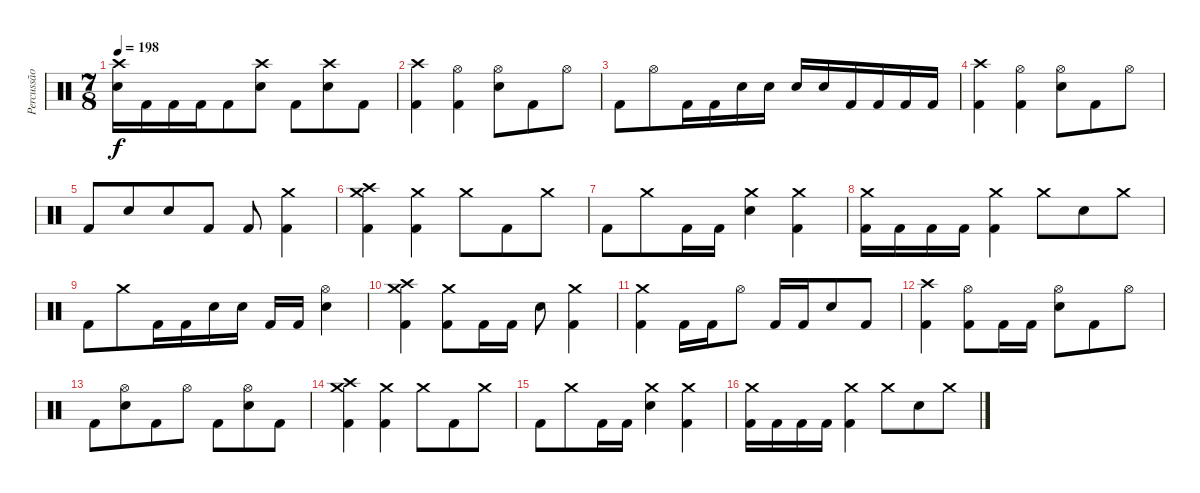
\track ("Percussão" "Percussão") {instrument percussion}
\staff {score}
\articulation defaults
\ts (7 8)
\tempo 198
\clef neutral
\ks c
("Crash high (hit)" "Snare (hit) 2").16{dy f} "Kick (hit) 2".16 "Kick (hit) 2".16 "Kick (hit) 2".16 "Kick (hit) 2".8 ("Crash high (hit)" "Snare (hit) 2").8 "Kick (hit) 2".8 ("Crash high (hit)" "Snare (hit) 2").8 "Kick (hit) 2".8 |
("Crash high (hit)" "Kick (hit) 2").4 ("Hi-Hat (open)" "Kick (hit) 2").4 ("Hi-Hat (open)" "Snare (hit) 2").8 "Kick (hit) 2".8 "Hi-Hat (open)".8 |
"Kick (hit) 2".8 "Hi-Hat (open)".8 "Kick (hit) 2".16 "Kick (hit) 2".16 "Snare (hit) 2".16 "Snare (hit) 2".16 "Snare (hit) 2".16 "Snare (hit) 2".16 "Kick (hit) 2".16 "Kick (hit) 2".16 "Kick (hit) 2".16 "Kick (hit) 2".16 |
("Crash high (hit)" "Kick (hit) 2").4 ("Hi-Hat (open)" "Kick (hit) 2").4 ("Hi-Hat (open)" "Snare (hit) 2").8 "Kick (hit) 2".8 "Hi-Hat (open)".8 |
"Kick (hit) 2".8 "Snare (hit) 2".8 "Snare (hit) 2".8 "Kick (hit) 2".8 "Kick (hit) 2".8 ("Crash medium (hit)" "Kick (hit) 2").4 |
("Crash high (hit)" "Crash medium (hit)" "Kick (hit) 2").4 ("Crash medium (hit)" "Kick (hit) 2").4 "Crash medium (hit)".8 "Kick (hit) 2".8 "Crash medium (hit)".8 |
"Kick (hit) 2".8 "Crash medium (hit)".8 "Kick (hit) 2".16 "Kick (hit) 2".16 ("Crash medium (hit)" "Snare (hit) 2").4 ("Crash medium (hit)" "Kick (hit) 2").4 |
("Crash medium (hit)" "Kick (hit) 2").16 "Kick (hit) 2".16 "Kick (hit) 2".16 "Kick (hit) 2".16 ("Crash medium (hit)" "Kick (hit) 2").4 "Crash medium (hit)".8 "Snare (hit) 2".8 "Crash medium (hit)".8 |
"Kick (hit) 2".8 "Crash medium (hit)".8 "Kick (hit) 2".16 "Kick (hit) 2".16 "Snare (hit) 2".16 "Snare (hit) 2".16 "Kick (hit) 2".16 "Kick (hit) 2".16 ("Hi-Hat (open)" "Snare (hit) 2").4 |
("Crash high (hit)" "Crash medium (hit)" "Kick (hit) 2").4 ("Crash medium (hit)" "Kick (hit) 2").8 "Kick (hit) 2".16 "Kick (hit) 2".16 "Snare (hit) 2".8 ("Crash medium (hit)" "Kick (hit) 2").4 |
("Crash medium (hit)" "Kick (hit) 2").4 "Kick (hit) 2".16 "Kick (hit) 2".16 "Hi-Hat (open)".8 "Kick (hit) 2".16 "Kick (hit) 2".16 "Snare (hit) 2".8 "Kick (hit) 2".8 |
("Crash high (hit)" "Kick (hit) 2").4 ("Hi-Hat (open)" "Kick (hit) 2").8 "Kick (hit) 2".16 "Kick (hit) 2".16 ("Hi-Hat (open)" "Snare (hit) 2").8 "Kick (hit) 2".8 "Hi-Hat (open)".8 |
"Kick (hit) 2".8 ("Hi-Hat (open)" "Snare (hit) 2").8 "Kick (hit) 2".8 "Hi-Hat (open)".8 "Kick (hit) 2".8 ("Hi-Hat (open)" "Snare (hit) 2").8 "Kick (hit) 2".8 |
("Crash high (hit)" "Crash medium (hit)" "Kick (hit) 2").4 ("Crash medium (hit)" "Kick (hit) 2").4 "Crash medium (hit)".8 "Kick (hit) 2".8 "Crash medium (hit)".8 |
"Kick (hit) 2".8 "Crash medium (hit)".8 "Kick (hit) 2".16 "Kick (hit) 2".16 ("Crash medium (hit)" "Snare (hit) 2").4 ("Crash medium (hit)" "Kick (hit) 2").4 |
("Crash medium (hit)" "Kick (hit) 2").16 "Kick (hit) 2".16 "Kick (hit) 2".16 "Kick (hit) 2".16 ("Crash medium (hit)" "Kick (hit) 2").4 "Crash medium (hit)".8 "Snare (hit) 2".8 "Crash medium (hit)".8
